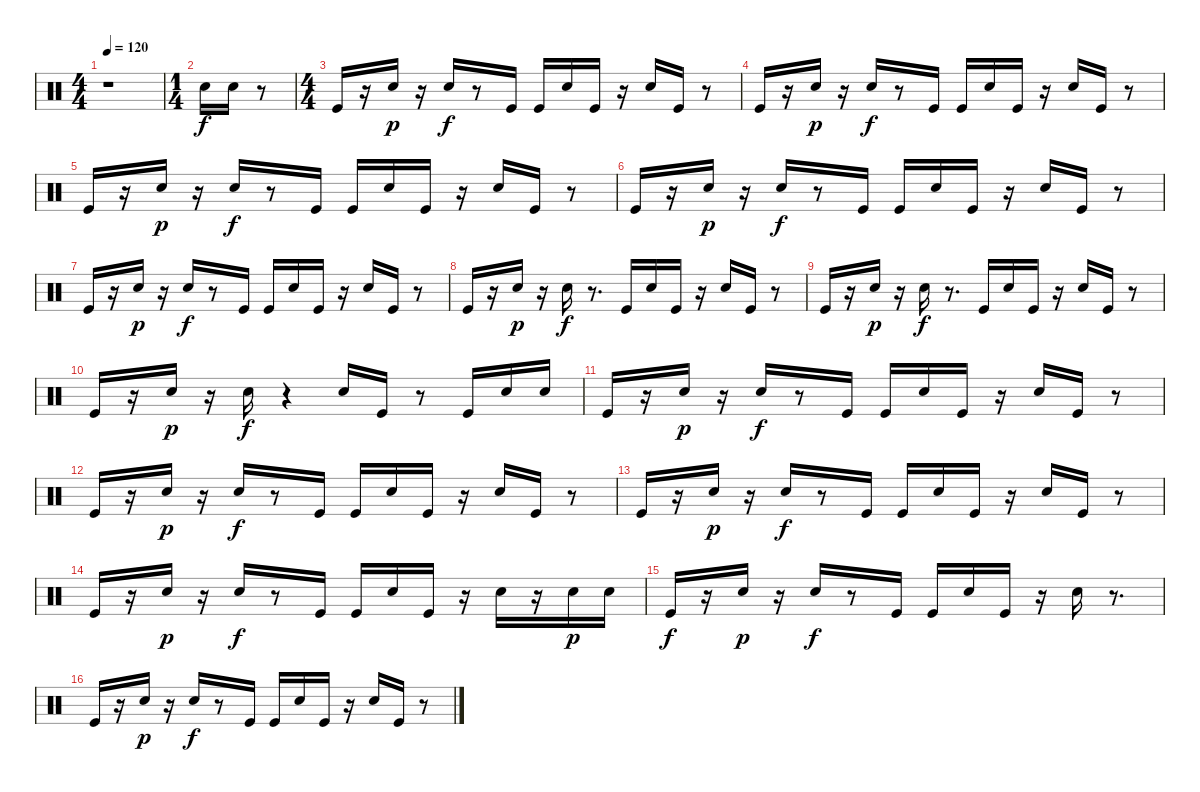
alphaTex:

\track "" {instrument percussion}
\staff {score}
\articulation defaults
\ts (4 4)
\tempo 120
\clef neutral
\ks c
r.1{dy f} |
\ts (1 4)
"Electric Snare (hit)".16 "Electric Snare (hit)".16 r.8 |
\ts (4 4)
"Kick (hit)".16 r.16 "Electric Snare (hit)".16{dy p} r.16 "Electric Snare (hit)".16{dy f} r.8 "Kick (hit)".16 "Kick (hit)".16 "Electric Snare (hit)".16 "Kick (hit)".16 r.16 "Electric Snare (hit)".16 "Kick (hit)".16 r.8 |
"Kick (hit)".16 r.16 "Electric Snare (hit)".16{dy p} r.16 "Electric Snare (hit)".16{dy f} r.8 "Kick (hit)".16 "Kick (hit)".16 "Electric Snare (hit)".16 "Kick (hit)".16 r.16 "Electric Snare (hit)".16 "Kick (hit)".16 r.8 |
"Kick (hit)".16 r.16 "Electric Snare (hit)".16{dy p} r.16 "Electric Snare (hit)".16{dy f} r.8 "Kick (hit)".16 "Kick (hit)".16 "Electric Snare (hit)".16 "Kick (hit)".16 r.16 "Electric Snare (hit)".16 "Kick (hit)".16 r.8 |
"Kick (hit)".16 r.16 "Electric Snare (hit)".16{dy p} r.16 "Electric Snare (hit)".16{dy f} r.8 "Kick (hit)".16 "Kick (hit)".16 "Electric Snare (hit)".16 "Kick (hit)".16 r.16 "Electric Snare (hit)".16 "Kick (hit)".16 r.8 |
"Kick (hit)".16 r.16 "Electric Snare (hit)".16{dy p} r.16 "Electric Snare (hit)".16{dy f} r.8 "Kick (hit)".16 "Kick (hit)".16 "Electric Snare (hit)".16 "Kick (hit)".16 r.16 "Electric Snare (hit)".16 "Kick (hit)".16 r.8 |
"Kick (hit)".16 r.16 "Electric Snare (hit)".16{dy p} r.16 "Electric Snare (hit)".16{dy f} r.8{d} "Kick (hit)".16 "Electric Snare (hit)".16 "Kick (hit)".16 r.16 "Electric Snare (hit)".16 "Kick (hit)".16 r.8 |
"Kick (hit)".16 r.16 "Electric Snare (hit)".16{dy p} r.16 "Electric Snare (hit)".16{dy f} r.8{d} "Kick (hit)".16 "Electric Snare (hit)".16 "Kick (hit)".16 r.16 "Electric Snare (hit)".16 "Kick (hit)".16 r.8 |
"Kick (hit)".16 r.16 "Electric Snare (hit)".16{dy p} r.16 "Electric Snare (hit)".16{dy f} r.4 "Electric Snare (hit)".16 "Kick (hit)".16 r.8 "Kick (hit)".16 "Electric Snare (hit)".16 "Electric Snare (hit)".16 |
"Kick (hit)".16 r.16 "Electric Snare (hit)".16{dy p} r.16 "Electric Snare (hit)".16{dy f} r.8 "Kick (hit)".16 "Kick (hit)".16 "Electric Snare (hit)".16 "Kick (hit)".16 r.16 "Electric Snare (hit)".16 "Kick (hit)".16 r.8 |
"Kick (hit)".16 r.16 "Electric Snare (hit)".16{dy p} r.16 "Electric Snare (hit)".16{dy f} r.8 "Kick (hit)".16 "Kick (hit)".16 "Electric Snare (hit)".16 "Kick (hit)".16 r.16 "Electric Snare (hit)".16 "Kick (hit)".16 r.8 |
"Kick (hit)".16 r.16 "Electric Snare (hit)".16{dy p} r.16 "Electric Snare (hit)".16{dy f} r.8 "Kick (hit)".16 "Kick (hit)".16 "Electric Snare (hit)".16 "Kick (hit)".16 r.16 "Electric Snare (hit)".16 "Kick (hit)".16 r.8 |
"Kick (hit)".16 r.16 "Electric Snare (hit)".16{dy p} r.16 "Electric Snare (hit)".16{dy f} r.8 "Kick (hit)".16 "Kick (hit)".16 "Electric Snare (hit)".16 "Kick (hit)".16 r.16 "Electric Snare (hit)".16 r.16 "Electric Snare (hit)".16{dy p} "Electric Snare (hit)".16 |
"Kick (hit)".16{dy f} r.16 "Electric Snare (hit)".16{dy p} r.16 "Electric Snare (hit)".16{dy f} r.8 "Kick (hit)".16 "Kick (hit)".16 "Electric Snare (hit)".16 "Kick (hit)".16 r.16 "Electric Snare (hit)".16 r.8{d} |
"Kick (hit)".16 r.16 "Electric Snare (hit)".16{dy p} r.16 "Electric Snare (hit)".16{dy f} r.8 "Kick (hit)".16 "Kick (hit)".16 "Electric Snare (hit)".16 "Kick (hit)".16 r.16 "Electric Snare (hit)".16 "Kick (hit)".16 r.8
